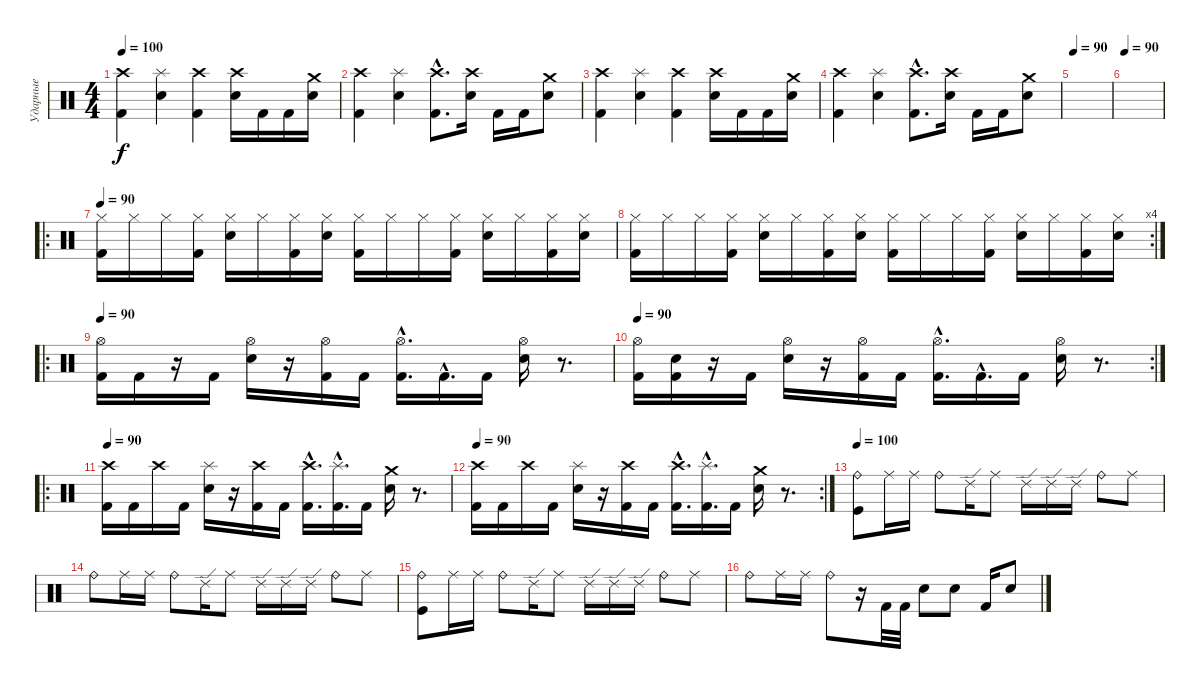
\track ("Ударные" "Ударные") {instrument percussion}
\staff {score}
\articulation defaults
\ts (4 4)
\tempo 100
\clef neutral
\ks c
("Crash high (hit)" "Kick (hit) 2").4{dy f} ("Splash (hit)" "Electric Snare (hit)").4 ("Crash high (hit)" "Kick (hit) 2").4 ("Crash high (hit)" "Electric Snare (hit)").16 "Kick (hit) 2".16 "Kick (hit) 2".16 ("Crash medium (hit)" "Electric Snare (hit)").16 |
("Crash high (hit)" "Kick (hit) 2").4 ("Splash (hit)" "Electric Snare (hit)").4 ("Crash high (hit)"{hac} "Kick (hit) 2"{hac}).8{d} ("Crash high (hit)" "Electric Snare (hit)").16 "Kick (hit) 2".16 "Kick (hit) 2".16 ("Crash medium (hit)" "Electric Snare (hit)").8 |
("Crash high (hit)" "Kick (hit) 2").4 ("Splash (hit)" "Electric Snare (hit)").4 ("Crash high (hit)" "Kick (hit) 2").4 ("Crash high (hit)" "Electric Snare (hit)").16 "Kick (hit) 2".16 "Kick (hit) 2".16 ("Crash medium (hit)" "Electric Snare (hit)").16 |
("Crash high (hit)" "Kick (hit) 2").4 ("Splash (hit)" "Electric Snare (hit)").4 ("Crash high (hit)"{hac} "Kick (hit) 2"{hac}).8{d} ("Crash high (hit)" "Electric Snare (hit)").16 "Kick (hit) 2".16 "Kick (hit) 2".16 ("Crash medium (hit)" "Electric Snare (hit)").8 |
\tempo 90
|
\tempo 90
|
\ro
\tempo 90
("Hi-Hat (closed)" "Kick (hit) 2").16 "Hi-Hat (closed)".16 "Hi-Hat (closed)".16 ("Hi-Hat (closed)" "Kick (hit) 2").16 ("Hi-Hat (closed)" "Electric Snare (hit)").16 "Hi-Hat (closed)".16 ("Hi-Hat (closed)" "Kick (hit) 2").16 ("Hi-Hat (closed)" "Electric Snare (hit)").16 ("Hi-Hat (closed)" "Kick (hit) 2").16 "Hi-Hat (closed)".16 "Hi-Hat (closed)".16 ("Hi-Hat (closed)" "Kick (hit) 2").16 ("Hi-Hat (closed)" "Electric Snare (hit)").16 "Hi-Hat (closed)".16 ("Hi-Hat (closed)" "Kick (hit) 2").16 ("Hi-Hat (closed)" "Electric Snare (hit)").16 |
\rc 4
("Hi-Hat (closed)" "Kick (hit) 2").16 "Hi-Hat (closed)".16 "Hi-Hat (closed)".16 ("Hi-Hat (closed)" "Kick (hit) 2").16 ("Hi-Hat (closed)" "Electric Snare (hit)").16 "Hi-Hat (closed)".16 ("Hi-Hat (closed)" "Kick (hit) 2").16 ("Hi-Hat (closed)" "Electric Snare (hit)").16 ("Hi-Hat (closed)" "Kick (hit) 2").16 "Hi-Hat (closed)".16 "Hi-Hat (closed)".16 ("Hi-Hat (closed)" "Kick (hit) 2").16 ("Hi-Hat (closed)" "Electric Snare (hit)").16 "Hi-Hat (closed)".16 ("Hi-Hat (closed)" "Kick (hit) 2").16 ("Hi-Hat (closed)" "Electric Snare (hit)").16 |
\ro
\tempo 90
("Hi-Hat (open)" "Kick (hit) 2").16 "Kick (hit) 2".16 r.16 "Kick (hit) 2".16 ("Hi-Hat (open)" "Electric Snare (hit)").16 r.16 ("Hi-Hat (open)" "Kick (hit) 2").16 "Kick (hit) 2".16 ("Hi-Hat (open)"{hac} "Kick (hit) 2"{hac}).16{d} "Kick (hit) 2"{hac}.16{d} "Kick (hit) 2".16 ("Hi-Hat (open)" "Electric Snare (hit)").16 r.8{d} |
\rc 2
\tempo 90
("Hi-Hat (open)" "Kick (hit) 2").16 ("Snare (hit)" "Kick (hit) 2").16 r.16 "Kick (hit) 2".16 ("Hi-Hat (open)" "Electric Snare (hit)").16 r.16 ("Hi-Hat (open)" "Kick (hit) 2").16 "Kick (hit) 2".16 ("Hi-Hat (open)"{hac} "Kick (hit) 2"{hac}).16{d} "Kick (hit) 2"{hac}.16{d} "Kick (hit) 2".16 ("Hi-Hat (open)" "Electric Snare (hit)").16 r.8{d} |
\ro
\tempo 90
("Crash high (hit)" "Kick (hit) 2").16 "Kick (hit) 2".16 "Crash high (hit)".16 "Kick (hit) 2".16 ("Splash (hit)" "Electric Snare (hit)").16 r.16 ("Crash high (hit)" "Kick (hit) 2").16 "Kick (hit) 2".16 ("Crash high (hit)"{hac} "Kick (hit) 2"{hac}).16{d} ("Splash (hit)"{hac} "Kick (hit) 2"{hac}).16{d} "Kick (hit) 2".16 ("Crash medium (hit)" "Electric Snare (hit)").16 r.8{d} |
\rc 2
\tempo 90
("Crash high (hit)" "Kick (hit) 2").16 "Kick (hit) 2".16 "Crash high (hit)".16 "Kick (hit) 2".16 ("Splash (hit)" "Electric Snare (hit)").16 r.16 ("Crash high (hit)" "Kick (hit) 2").16 "Kick (hit) 2".16 ("Crash high (hit)"{hac} "Kick (hit) 2"{hac}).16{d} ("Splash (hit)"{hac} "Kick (hit) 2"{hac}).16{d} "Kick (hit) 2".16 ("Crash medium (hit)" "Electric Snare (hit)").16 r.8{d} |
\tempo 100
("Ride (bell)" "Kick (hit)").8 "Ride (middle)".16 "Ride (middle)".16 "Ride (bell)".8 "Ride (edge) 2".16 "Ride (middle)".8 "Ride (edge) 2".16 "Ride (edge) 2".16 "Ride (edge) 2".16 "Ride (bell)".8 "Ride (middle)".8 |
"Ride (bell)".8 "Ride (middle)".16 "Ride (middle)".16 "Ride (bell)".8 "Ride (edge) 2".16 "Ride (middle)".8 "Ride (edge) 2".16 "Ride (edge) 2".16 "Ride (edge) 2".16 "Ride (bell)".8 "Ride (middle)".8 |
("Ride (bell)" "Kick (hit)").8 "Ride (middle)".16 "Ride (middle)".16 "Ride (bell)".8 "Ride (edge) 2".16 "Ride (middle)".8 "Ride (edge) 2".16 "Ride (edge) 2".16 "Ride (edge) 2".16 "Ride (bell)".8 "Ride (middle)".8 |
"Ride (bell)".8 "Ride (middle)".16 "Ride (middle)".16 "Ride (bell)".8 r.16 "Kick (hit) 2".32{volume 12} "Kick (hit) 2".32 "Electric Snare (hit)".8 "Electric Snare (hit)".8 "Kick (hit) 2".16 "Electric Snare (hit)".8
